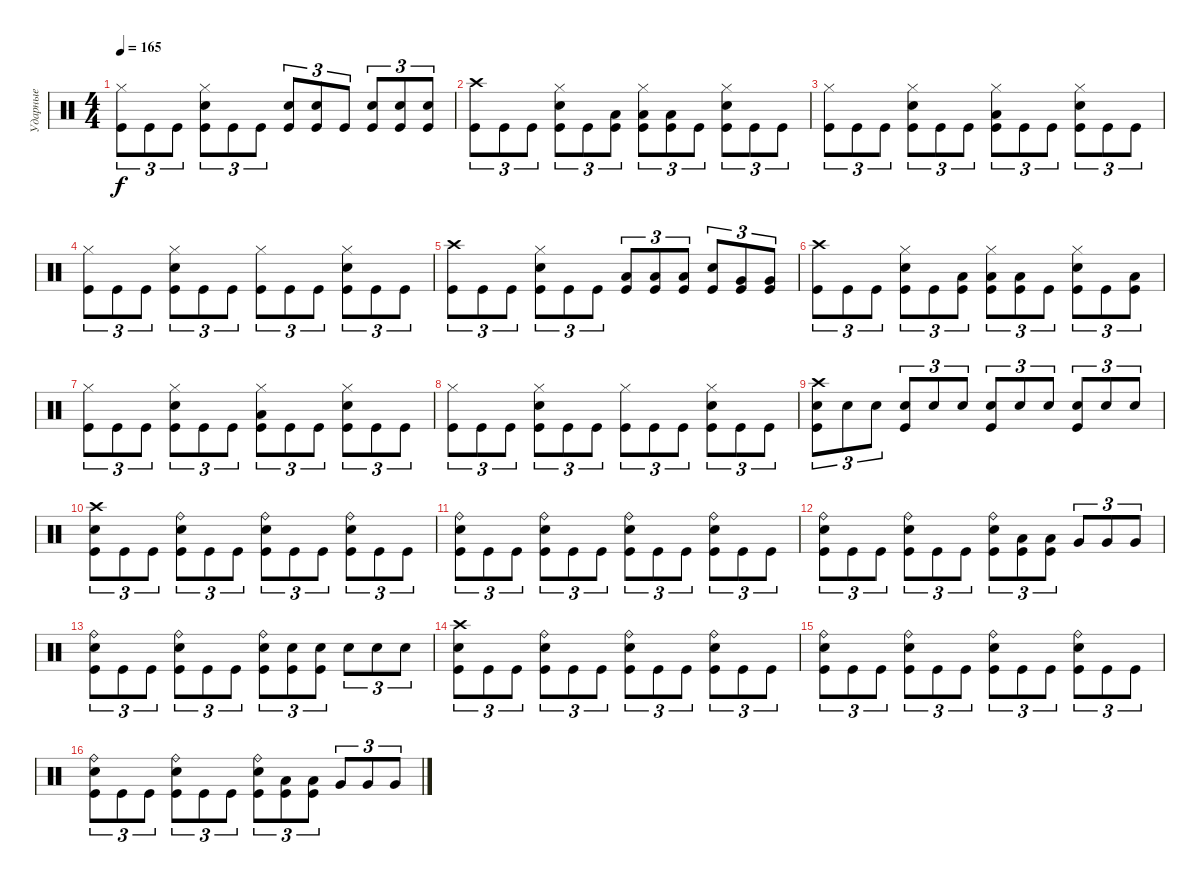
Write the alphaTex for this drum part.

\track ("Ударные" "Ударные") {instrument percussion}
\staff {score}
\articulation defaults
\ts (4 4)
\tempo 165
\clef neutral
\ks c
("Hi-Hat (closed)" "Kick (hit)").8{tu (3 2) dy f} "Kick (hit)".8{tu (3 2)} "Kick (hit)".8{tu (3 2)} ("Hi-Hat (closed)" "Electric Snare (hit)" "Kick (hit)").8{tu (3 2)} "Kick (hit)".8{tu (3 2)} "Kick (hit)".8{tu (3 2)} ("Electric Snare (hit)" "Kick (hit)").8{tu (3 2)} ("Electric Snare (hit)" "Kick (hit)").8{tu (3 2)} "Kick (hit)".8{tu (3 2)} ("Electric Snare (hit)" "Kick (hit)").8{tu (3 2)} ("Electric Snare (hit)" "Kick (hit)").8{tu (3 2)} ("Electric Snare (hit)" "Kick (hit)").8{tu (3 2)} |
("Crash high (hit)" "Kick (hit)").8{tu (3 2)} "Kick (hit)".8{tu (3 2)} "Kick (hit)".8{tu (3 2)} ("Hi-Hat (closed)" "Electric Snare (hit)" "Kick (hit)").8{tu (3 2)} "Kick (hit)".8{tu (3 2)} ("Low Tom (hit)" "Kick (hit)").8{tu (3 2)} ("Hi-Hat (closed)" "Low Tom (hit)" "Kick (hit)").8{tu (3 2)} ("Low Tom (hit)" "Kick (hit)").8{tu (3 2)} "Kick (hit)".8{tu (3 2)} ("Hi-Hat (closed)" "Electric Snare (hit)" "Kick (hit)").8{tu (3 2)} "Kick (hit)".8{tu (3 2)} "Kick (hit)".8{tu (3 2)} |
("Hi-Hat (closed)" "Kick (hit)").8{tu (3 2)} "Kick (hit)".8{tu (3 2)} "Kick (hit)".8{tu (3 2)} ("Hi-Hat (closed)" "Electric Snare (hit)" "Kick (hit)").8{tu (3 2)} "Kick (hit)".8{tu (3 2)} "Kick (hit)".8{tu (3 2)} ("Hi-Hat (closed)" "Low Tom (hit)" "Kick (hit)").8{tu (3 2)} "Kick (hit)".8{tu (3 2)} "Kick (hit)".8{tu (3 2)} ("Hi-Hat (closed)" "Electric Snare (hit)" "Kick (hit)").8{tu (3 2)} "Kick (hit)".8{tu (3 2)} "Kick (hit)".8{tu (3 2)} |
("Hi-Hat (closed)" "Kick (hit)").8{tu (3 2)} "Kick (hit)".8{tu (3 2)} "Kick (hit)".8{tu (3 2)} ("Hi-Hat (closed)" "Electric Snare (hit)" "Kick (hit)").8{tu (3 2)} "Kick (hit)".8{tu (3 2)} "Kick (hit)".8{tu (3 2)} ("Hi-Hat (closed)" "Kick (hit)").8{tu (3 2)} "Kick (hit)".8{tu (3 2)} "Kick (hit)".8{tu (3 2)} ("Hi-Hat (closed)" "Electric Snare (hit)" "Kick (hit)").8{tu (3 2)} "Kick (hit)".8{tu (3 2)} "Kick (hit)".8{tu (3 2)} |
("Crash high (hit)" "Kick (hit)").8{tu (3 2)} "Kick (hit)".8{tu (3 2)} "Kick (hit)".8{tu (3 2)} ("Hi-Hat (closed)" "Electric Snare (hit)" "Kick (hit)").8{tu (3 2)} "Kick (hit)".8{tu (3 2)} "Kick (hit)".8{tu (3 2)} ("Low Tom (hit)" "Kick (hit)").8{tu (3 2)} ("Low Tom (hit)" "Kick (hit)").8{tu (3 2)} ("Low Tom (hit)" "Kick (hit)").8{tu (3 2)} ("Electric Snare (hit)" "Kick (hit)").8{tu (3 2)} ("Very Low Tom (hit)" "Kick (hit)").8{tu (3 2)} ("Very Low Tom (hit)" "Kick (hit)").8{tu (3 2)} |
("Crash high (hit)" "Kick (hit)").8{tu (3 2)} "Kick (hit)".8{tu (3 2)} "Kick (hit)".8{tu (3 2)} ("Hi-Hat (closed)" "Electric Snare (hit)" "Kick (hit)").8{tu (3 2)} "Kick (hit)".8{tu (3 2)} ("Low Tom (hit)" "Kick (hit)").8{tu (3 2)} ("Hi-Hat (closed)" "Low Tom (hit)" "Kick (hit)").8{tu (3 2)} ("Low Tom (hit)" "Kick (hit)").8{tu (3 2)} "Kick (hit)".8{tu (3 2)} ("Hi-Hat (closed)" "Electric Snare (hit)" "Kick (hit)").8{tu (3 2)} "Kick (hit)".8{tu (3 2)} ("Low Tom (hit)" "Kick (hit)").8{tu (3 2)} |
("Hi-Hat (closed)" "Kick (hit)").8{tu (3 2)} "Kick (hit)".8{tu (3 2)} "Kick (hit)".8{tu (3 2)} ("Hi-Hat (closed)" "Electric Snare (hit)" "Kick (hit)").8{tu (3 2)} "Kick (hit)".8{tu (3 2)} "Kick (hit)".8{tu (3 2)} ("Hi-Hat (closed)" "Low Tom (hit)" "Kick (hit)").8{tu (3 2)} "Kick (hit)".8{tu (3 2)} "Kick (hit)".8{tu (3 2)} ("Hi-Hat (closed)" "Electric Snare (hit)" "Kick (hit)").8{tu (3 2)} "Kick (hit)".8{tu (3 2)} "Kick (hit)".8{tu (3 2)} |
("Hi-Hat (closed)" "Kick (hit)").8{tu (3 2)} "Kick (hit)".8{tu (3 2)} "Kick (hit)".8{tu (3 2)} ("Hi-Hat (closed)" "Electric Snare (hit)" "Kick (hit)").8{tu (3 2)} "Kick (hit)".8{tu (3 2)} "Kick (hit)".8{tu (3 2)} ("Hi-Hat (closed)" "Kick (hit)").8{tu (3 2)} "Kick (hit)".8{tu (3 2)} "Kick (hit)".8{tu (3 2)} ("Hi-Hat (closed)" "Electric Snare (hit)" "Kick (hit)").8{tu (3 2)} "Kick (hit)".8{tu (3 2)} "Kick (hit)".8{tu (3 2)} |
("Crash high (hit)" "Electric Snare (hit)" "Kick (hit)").8{tu (3 2)} "Electric Snare (hit)".8{tu (3 2)} "Electric Snare (hit)".8{tu (3 2)} ("Electric Snare (hit)" "Kick (hit)").8{tu (3 2)} "Electric Snare (hit)".8{tu (3 2)} "Electric Snare (hit)".8{tu (3 2)} ("Electric Snare (hit)" "Kick (hit)").8{tu (3 2)} "Electric Snare (hit)".8{tu (3 2)} "Electric Snare (hit)".8{tu (3 2)} ("Electric Snare (hit)" "Kick (hit)").8{tu (3 2)} "Electric Snare (hit)".8{tu (3 2)} "Electric Snare (hit)".8{tu (3 2)} |
("Crash high (hit)" "Electric Snare (hit)" "Kick (hit)").8{tu (3 2)} "Kick (hit)".8{tu (3 2)} "Kick (hit)".8{tu (3 2)} ("Ride (bell)" "Electric Snare (hit)" "Kick (hit)").8{tu (3 2)} "Kick (hit)".8{tu (3 2)} "Kick (hit)".8{tu (3 2)} ("Ride (bell)" "Electric Snare (hit)" "Kick (hit)").8{tu (3 2)} "Kick (hit)".8{tu (3 2)} "Kick (hit)".8{tu (3 2)} ("Ride (bell)" "Electric Snare (hit)" "Kick (hit)").8{tu (3 2)} "Kick (hit)".8{tu (3 2)} "Kick (hit)".8{tu (3 2)} |
("Ride (bell)" "Electric Snare (hit)" "Kick (hit)").8{tu (3 2)} "Kick (hit)".8{tu (3 2)} "Kick (hit)".8{tu (3 2)} ("Ride (bell)" "Electric Snare (hit)" "Kick (hit)").8{tu (3 2)} "Kick (hit)".8{tu (3 2)} "Kick (hit)".8{tu (3 2)} ("Ride (bell)" "Electric Snare (hit)" "Kick (hit)").8{tu (3 2)} "Kick (hit)".8{tu (3 2)} "Kick (hit)".8{tu (3 2)} ("Ride (bell)" "Electric Snare (hit)" "Kick (hit)").8{tu (3 2)} "Kick (hit)".8{tu (3 2)} "Kick (hit)".8{tu (3 2)} |
("Ride (bell)" "Electric Snare (hit)" "Kick (hit)").8{tu (3 2)} "Kick (hit)".8{tu (3 2)} "Kick (hit)".8{tu (3 2)} ("Ride (bell)" "Electric Snare (hit)" "Kick (hit)").8{tu (3 2)} "Kick (hit)".8{tu (3 2)} "Kick (hit)".8{tu (3 2)} ("Ride (bell)" "Electric Snare (hit)" "Kick (hit)").8{tu (3 2)} ("Low Tom (hit)" "Kick (hit)").8{tu (3 2)} ("Low Tom (hit)" "Kick (hit)").8{tu (3 2)} "Very Low Tom (hit)".8{tu (3 2)} "Very Low Tom (hit)".8{tu (3 2)} "Very Low Tom (hit)".8{tu (3 2)} |
("Ride (bell)" "Electric Snare (hit)" "Kick (hit)").8{tu (3 2)} "Kick (hit)".8{tu (3 2)} "Kick (hit)".8{tu (3 2)} ("Ride (bell)" "Electric Snare (hit)" "Kick (hit)").8{tu (3 2)} "Kick (hit)".8{tu (3 2)} "Kick (hit)".8{tu (3 2)} ("Ride (bell)" "Electric Snare (hit)" "Kick (hit)").8{tu (3 2)} ("Electric Snare (hit)" "Kick (hit)").8{tu (3 2)} ("Electric Snare (hit)" "Kick (hit)").8{tu (3 2)} "Electric Snare (hit)".8{tu (3 2)} "Electric Snare (hit)".8{tu (3 2)} "Electric Snare (hit)".8{tu (3 2)} |
("Crash high (hit)" "Electric Snare (hit)" "Kick (hit)").8{tu (3 2)} "Kick (hit)".8{tu (3 2)} "Kick (hit)".8{tu (3 2)} ("Ride (bell)" "Electric Snare (hit)" "Kick (hit)").8{tu (3 2)} "Kick (hit)".8{tu (3 2)} "Kick (hit)".8{tu (3 2)} ("Ride (bell)" "Electric Snare (hit)" "Kick (hit)").8{tu (3 2)} "Kick (hit)".8{tu (3 2)} "Kick (hit)".8{tu (3 2)} ("Ride (bell)" "Electric Snare (hit)" "Kick (hit)").8{tu (3 2)} "Kick (hit)".8{tu (3 2)} "Kick (hit)".8{tu (3 2)} |
("Ride (bell)" "Electric Snare (hit)" "Kick (hit)").8{tu (3 2)} "Kick (hit)".8{tu (3 2)} "Kick (hit)".8{tu (3 2)} ("Ride (bell)" "Electric Snare (hit)" "Kick (hit)").8{tu (3 2)} "Kick (hit)".8{tu (3 2)} "Kick (hit)".8{tu (3 2)} ("Ride (bell)" "Electric Snare (hit)" "Kick (hit)").8{tu (3 2)} "Kick (hit)".8{tu (3 2)} "Kick (hit)".8{tu (3 2)} ("Ride (bell)" "Electric Snare (hit)" "Kick (hit)").8{tu (3 2)} "Kick (hit)".8{tu (3 2)} "Kick (hit)".8{tu (3 2)} |
("Ride (bell)" "Electric Snare (hit)" "Kick (hit)").8{tu (3 2)} "Kick (hit)".8{tu (3 2)} "Kick (hit)".8{tu (3 2)} ("Ride (bell)" "Electric Snare (hit)" "Kick (hit)").8{tu (3 2)} "Kick (hit)".8{tu (3 2)} "Kick (hit)".8{tu (3 2)} ("Ride (bell)" "Electric Snare (hit)" "Kick (hit)").8{tu (3 2)} ("Low Tom (hit)" "Kick (hit)").8{tu (3 2)} ("Low Tom (hit)" "Kick (hit)").8{tu (3 2)} "Very Low Tom (hit)".8{tu (3 2)} "Very Low Tom (hit)".8{tu (3 2)} "Very Low Tom (hit)".8{tu (3 2)}
